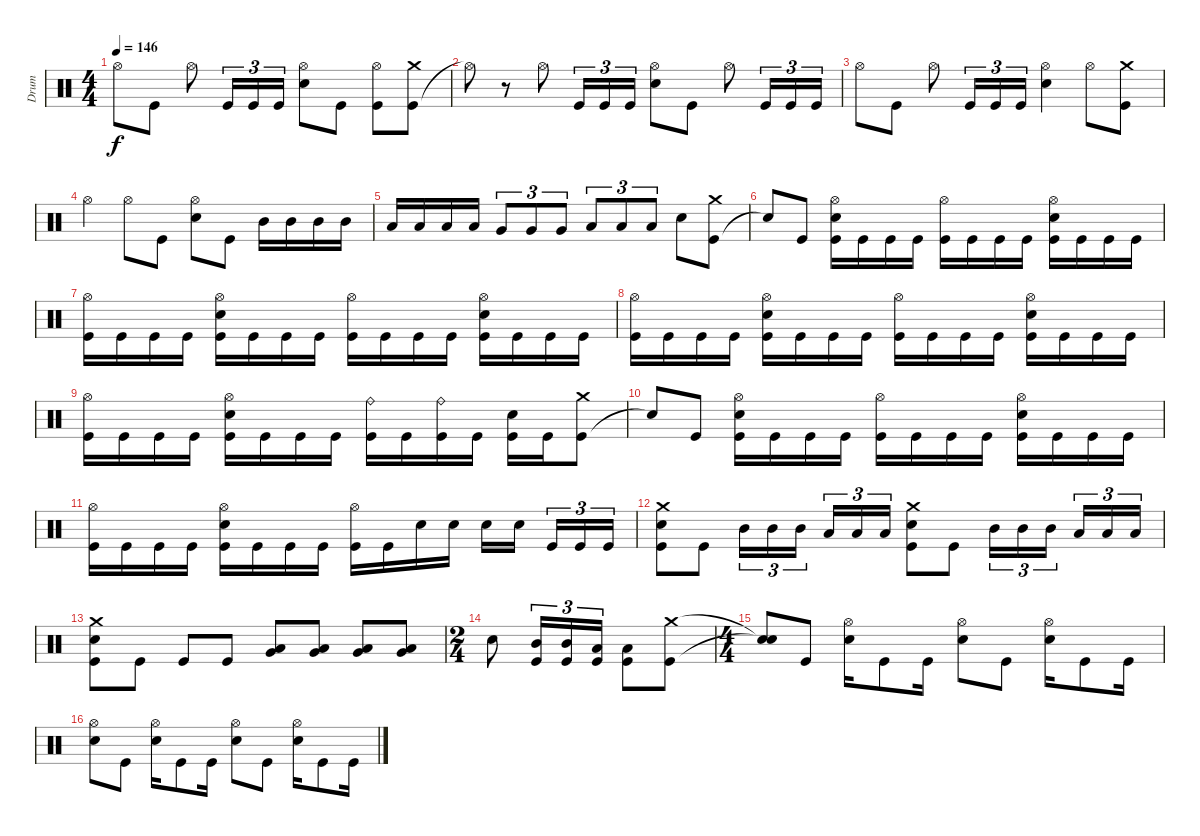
\track ("Drum" "Drum") {instrument percussion}
\staff {score}
\articulation defaults
\ts (4 4)
\tempo 146
\clef neutral
\ks c "Hi-Hat (open)".8{dy f} "Kick (hit)".8 "Hi-Hat (open)".8 "Kick (hit)".16{tu (3 2)} "Kick (hit)".16{tu (3 2)} "Kick (hit)".16{tu (3 2)}
("Electric Snare (hit)" "Hi-Hat (open)").8 "Kick (hit)".8 ("Kick (hit)" "Hi-Hat (open)").8 ("Kick (hit)" "Crash medium (hit)").8 |
"Hi-Hat (open)"{t}.8 r.8 "Hi-Hat (open)".8 "Kick (hit)".16{tu (3 2)} "Kick (hit)".16{tu (3 2)} "Kick (hit)".16{tu (3 2)} ("Electric Snare (hit)" "Hi-Hat (open)").8 "Kick (hit)".8 "Hi-Hat (open)".8 "Kick (hit)".16{tu (3 2)} "Kick (hit)".16{tu (3 2)} "Kick (hit)".16{tu (3 2)} |
"Hi-Hat (open)".8 "Kick (hit)".8 "Hi-Hat (open)".8 "Kick (hit)".16{tu (3 2)} "Kick (hit)".16{tu (3 2)} "Kick (hit)".16{tu (3 2)} ("Electric Snare (hit)" "Hi-Hat (open)").4 "Hi-Hat (open)".8 ("Kick (hit)" "Crash medium (hit)").8 |
"Hi-Hat (open)".4 "Hi-Hat (open)".8 "Kick (hit)".8 ("Electric Snare (hit)" "Hi-Hat (open)").8 "Kick (hit)".8 "Mid Tom (hit)".16 "Mid Tom (hit)".16 "Mid Tom (hit)".16 "Mid Tom (hit)".16 |
"Low Tom (hit)".16 "Low Tom (hit)".16 "Low Tom (hit)".16 "Low Tom (hit)".16 "Very Low Tom (hit)".8{tu (3 2)} "Very Low Tom (hit)".8{tu (3 2)} "Very Low Tom (hit)".8{tu (3 2)} "Low Floor Tom (hit)".8{tu (3 2)} "Low Floor Tom (hit)".8{tu (3 2)} "Low Floor Tom (hit)".8{tu (3 2)} "Electric Snare (hit)".8 ("Kick (hit)" "Crash medium (hit)").8 |
"Snare (hit)"{t}.8 "Kick (hit)".8 ("Kick (hit)" "Electric Snare (hit)" "Hi-Hat (open)").16 "Kick (hit)".16 "Kick (hit)".16 "Kick (hit)".16 ("Kick (hit)" "Hi-Hat (open)").16 "Kick (hit)".16 "Kick (hit)".16 "Kick (hit)".16 ("Kick (hit)" "Electric Snare (hit)" "Hi-Hat (open)").16 "Kick (hit)".16 "Kick (hit)".16 "Kick (hit)".16 |
("Kick (hit)" "Hi-Hat (open)").16 "Kick (hit)".16 "Kick (hit)".16 "Kick (hit)".16 ("Kick (hit)" "Electric Snare (hit)" "Hi-Hat (open)").16 "Kick (hit)".16 "Kick (hit)".16 "Kick (hit)".16 ("Kick (hit)" "Hi-Hat (open)").16 "Kick (hit)".16 "Kick (hit)".16 "Kick (hit)".16 ("Kick (hit)" "Electric Snare (hit)" "Hi-Hat (open)").16 "Kick (hit)".16 "Kick (hit)".16 "Kick (hit)".16 |
("Kick (hit)" "Hi-Hat (open)").16 "Kick (hit)".16 "Kick (hit)".16 "Kick (hit)".16 ("Kick (hit)" "Electric Snare (hit)" "Hi-Hat (open)").16 "Kick (hit)".16 "Kick (hit)".16 "Kick (hit)".16 ("Kick (hit)" "Hi-Hat (open)").16 "Kick (hit)".16 "Kick (hit)".16 "Kick (hit)".16 ("Kick (hit)" "Electric Snare (hit)" "Hi-Hat (open)").16 "Kick (hit)".16 "Kick (hit)".16 "Kick (hit)".16 |
("Kick (hit)" "Hi-Hat (open)").16 "Kick (hit)".16 "Kick (hit)".16 "Kick (hit)".16 ("Kick (hit)" "Electric Snare (hit)" "Hi-Hat (open)").16 "Kick (hit)".16 "Kick (hit)".16 "Kick (hit)".16 ("Kick (hit)" "Ride (bell)").16 "Kick (hit)".16 ("Kick (hit)" "Ride (bell)").16 "Kick (hit)".16 ("Kick (hit)" "Electric Snare (hit)").16 "Kick (hit)".16 ("Kick (hit)" "Crash medium (hit)").8 |
"Snare (hit)"{t}.8 "Kick (hit)".8 ("Kick (hit)" "Electric Snare (hit)" "Hi-Hat (open)").16 "Kick (hit)".16 "Kick (hit)".16 "Kick (hit)".16 ("Kick (hit)" "Hi-Hat (open)").16 "Kick (hit)".16 "Kick (hit)".16 "Kick (hit)".16 ("Kick (hit)" "Electric Snare (hit)" "Hi-Hat (open)").16 "Kick (hit)".16 "Kick (hit)".16 "Kick (hit)".16 |
("Kick (hit)" "Hi-Hat (open)").16 "Kick (hit)".16 "Kick (hit)".16 "Kick (hit)".16 ("Kick (hit)" "Electric Snare (hit)" "Hi-Hat (open)").16 "Kick (hit)".16 "Kick (hit)".16 "Kick (hit)".16 ("Kick (hit)" "Hi-Hat (open)").16 "Kick (hit)".16 "Electric Snare (hit)".16 "Electric Snare (hit)".16 "Electric Snare (hit)".16 "Electric Snare (hit)".16 "Kick (hit)".16{tu (3 2)} "Kick (hit)".16{tu (3 2)} "Kick (hit)".16{tu (3 2)} |
("Kick (hit)" "Electric Snare (hit)" "Crash medium (hit)").8 "Kick (hit)".8 "Mid Tom (hit)".16{tu (3 2)} "Mid Tom (hit)".16{tu (3 2)} "Mid Tom (hit)".16{tu (3 2)} "Low Tom (hit)".16{tu (3 2)} "Low Tom (hit)".16{tu (3 2)} "Low Tom (hit)".16{tu (3 2)} ("Kick (hit)" "Electric Snare (hit)" "Crash medium (hit)").8 "Kick (hit)".8 "Mid Tom (hit)".16{tu (3 2)} "Mid Tom (hit)".16{tu (3 2)} "Mid Tom (hit)".16{tu (3 2)} "Low Tom (hit)".16{tu (3 2)} "Low Tom (hit)".16{tu (3 2)} "Low Tom (hit)".16{tu (3 2)} |
("Kick (hit)" "Electric Snare (hit)" "Crash medium (hit)").8 "Kick (hit)".8 "Kick (hit)".8 "Kick (hit)".8 ("Very Low Tom (hit)" "Low Tom (hit)").8 ("Very Low Tom (hit)" "Low Tom (hit)").8 ("Very Low Tom (hit)" "Low Tom (hit)").8 ("Very Low Tom (hit)" "Low Tom (hit)").8 |
\ts (2 4)
"Electric Snare (hit)".8 ("Kick (hit)" "Mid Tom (hit)").16{tu (3 2)} ("Kick (hit)" "Mid Tom (hit)").16{tu (3 2)} ("Kick (hit)" "Low Tom (hit)").16{tu (3 2)} ("Kick (hit)" "Low Tom (hit)").8 ("Kick (hit)" "Crash medium (hit)").8 |
\ts (4 4)
("Snare (hit)"{t} "Snare (hit)"{t}).8 "Kick (hit)".8 ("Electric Snare (hit)" "Hi-Hat (open)").16 "Kick (hit)".8 "Kick (hit)".16 ("Electric Snare (hit)" "Hi-Hat (open)").8 "Kick (hit)".8 ("Electric Snare (hit)" "Hi-Hat (open)").16 "Kick (hit)".8 "Kick (hit)".16 |
("Electric Snare (hit)" "Hi-Hat (open)").8 "Kick (hit)".8 ("Electric Snare (hit)" "Hi-Hat (open)").16 "Kick (hit)".8 "Kick (hit)".16 ("Electric Snare (hit)" "Hi-Hat (open)").8 "Kick (hit)".8 ("Electric Snare (hit)" "Hi-Hat (open)").16 "Kick (hit)".8 "Kick (hit)".16
